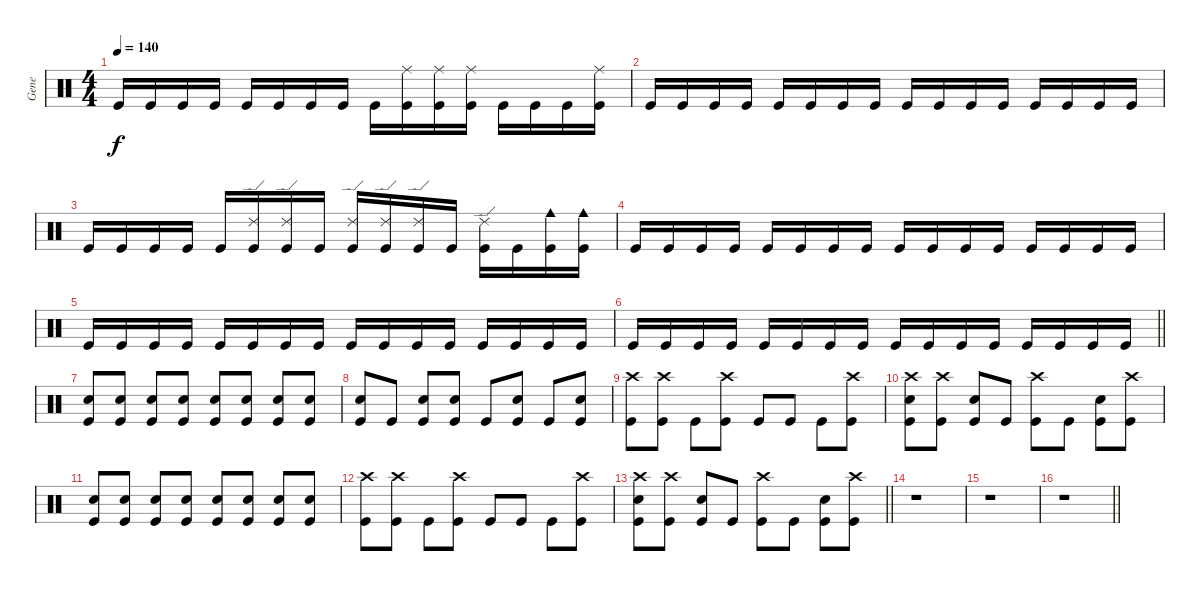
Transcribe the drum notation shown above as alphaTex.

\track ("Gene" "Gene") {instrument percussion}
\staff
\articulation defaults
\ts (4 4)
\tempo 140
\clef neutral
\ks c "Kick (hit)".16{dy f} "Kick (hit)".16 "Kick (hit)".16 "Kick (hit)".16 "Kick (hit)".16 "Kick (hit)".16 "Kick (hit)".16 "Kick (hit)".16 "Kick (hit)".16
("Ride (middle)" "Kick (hit)").16 ("Ride (middle)" "Kick (hit)").16 ("Ride (middle)" "Kick (hit)").16 "Kick (hit)".16 "Kick (hit)".16 "Kick (hit)".16 ("Ride (middle)" "Kick (hit)").16 |
"Kick (hit)".16 "Kick (hit)".16 "Kick (hit)".16 "Kick (hit)".16 "Kick (hit)".16 "Kick (hit)".16 "Kick (hit)".16 "Kick (hit)".16 "Kick (hit)".16 "Kick (hit)".16 "Kick (hit)".16 "Kick (hit)".16 "Kick (hit)".16 "Kick (hit)".16 "Kick (hit)".16 "Kick (hit)".16 |
"Kick (hit)".16 "Kick (hit)".16 "Kick (hit)".16 "Kick (hit)".16 "Kick (hit)".16 ("Ride (edge) 2" "Kick (hit)").16 ("Ride (edge) 2" "Kick (hit)").16 "Kick (hit)".16 ("Ride (edge) 2" "Kick (hit)").16 ("Ride (edge) 2" "Kick (hit)").16 ("Ride (edge) 2" "Kick (hit)").16 "Kick (hit)".16 ("Ride (edge) 2" "Kick (hit)").16 "Kick (hit)".16 ("Cowbell medium (hit)" "Kick (hit)").16 ("Cowbell medium (hit)" "Kick (hit)").16 |
"Kick (hit)".16 "Kick (hit)".16 "Kick (hit)".16 "Kick (hit)".16 "Kick (hit)".16 "Kick (hit)".16 "Kick (hit)".16 "Kick (hit)".16 "Kick (hit)".16 "Kick (hit)".16 "Kick (hit)".16 "Kick (hit)".16 "Kick (hit)".16 "Kick (hit)".16 "Kick (hit)".16 "Kick (hit)".16 |
"Kick (hit)".16 "Kick (hit)".16 "Kick (hit)".16 "Kick (hit)".16 "Kick (hit)".16 "Kick (hit)".16 "Kick (hit)".16 "Kick (hit)".16 "Kick (hit)".16 "Kick (hit)".16 "Kick (hit)".16 "Kick (hit)".16 "Kick (hit)".16 "Kick (hit)".16 "Kick (hit)".16 "Kick (hit)".16 |
\barLineRight lightlight "Kick (hit)".16 "Kick (hit)".16 "Kick (hit)".16 "Kick (hit)".16 "Kick (hit)".16 "Kick (hit)".16 "Kick (hit)".16 "Kick (hit)".16 "Kick (hit)".16 "Kick (hit)".16 "Kick (hit)".16 "Kick (hit)".16 "Kick (hit)".16 "Kick (hit)".16 "Kick (hit)".16 "Kick (hit)".16
|
("Snare (hit) 2" "Kick (hit)").8 ("Snare (hit) 2" "Kick (hit)").8 ("Snare (hit) 2" "Kick (hit)").8 ("Snare (hit) 2" "Kick (hit)").8 ("Snare (hit) 2" "Kick (hit)").8 ("Snare (hit) 2" "Kick (hit)").8 ("Snare (hit) 2" "Kick (hit)").8 ("Snare (hit) 2" "Kick (hit)").8 |
("Snare (hit) 2" "Kick (hit)").8 "Kick (hit)".8 ("Snare (hit) 2" "Kick (hit)").8 ("Snare (hit) 2" "Kick (hit)").8 "Kick (hit)".8 ("Snare (hit) 2" "Kick (hit)").8 "Kick (hit)".8 ("Snare (hit) 2" "Kick (hit)").8 |
("Crash high (hit)" "Kick (hit)").8 ("Crash high (hit)" "Kick (hit)").8 "Kick (hit)".8 ("Crash high (hit)" "Kick (hit)").8 "Kick (hit)".8 "Kick (hit)".8 "Kick (hit)".8 ("Crash high (hit)" "Kick (hit)").8 |
("Snare (hit) 2" "Crash high (hit)" "Kick (hit)").8 ("Crash high (hit)" "Kick (hit)").8 ("Snare (hit) 2" "Kick (hit)").8 "Kick (hit)".8 ("Crash high (hit)" "Kick (hit)").8 "Kick (hit)".8 ("Snare (hit) 2" "Kick (hit)").8 ("Crash high (hit)" "Kick (hit)").8 |
("Snare (hit) 2" "Kick (hit)").8 ("Snare (hit) 2" "Kick (hit)").8 ("Snare (hit) 2" "Kick (hit)").8 ("Snare (hit) 2" "Kick (hit)").8 ("Snare (hit) 2" "Kick (hit)").8 ("Snare (hit) 2" "Kick (hit)").8 ("Snare (hit) 2" "Kick (hit)").8 ("Snare (hit) 2" "Kick (hit)").8 |
("Crash high (hit)" "Kick (hit)").8 ("Crash high (hit)" "Kick (hit)").8 "Kick (hit)".8 ("Crash high (hit)" "Kick (hit)").8 "Kick (hit)".8 "Kick (hit)".8 "Kick (hit)".8 ("Crash high (hit)" "Kick (hit)").8 |
\barLineRight lightlight
("Snare (hit) 2" "Crash high (hit)" "Kick (hit)").8 ("Crash high (hit)" "Kick (hit)").8 ("Snare (hit) 2" "Kick (hit)").8 "Kick (hit)".8 ("Crash high (hit)" "Kick (hit)").8 "Kick (hit)".8 ("Snare (hit) 2" "Kick (hit)").8 ("Crash high (hit)" "Kick (hit)").8 |
r.1 |
r.1 |
\barLineRight lightlight
r.1
